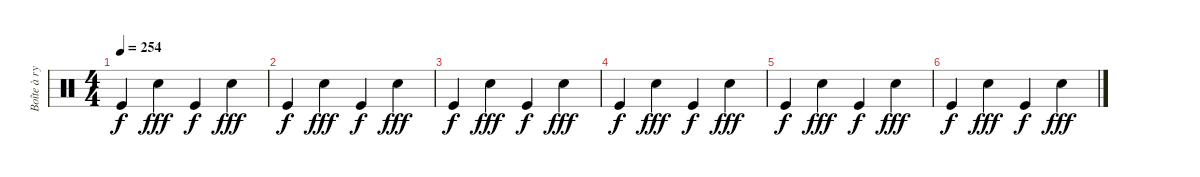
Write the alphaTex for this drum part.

\track ("Boîte à rytmes" "Boîte à ry") {instrument percussion}
\staff {score}
\articulation defaults
\ts (4 4)
\tempo 254
\clef neutral
\ks c "Kick (hit)".4{dy f} "Snare (hit) 2".4{dy fff} "Kick (hit)".4{dy f} "Snare (hit) 2".4{dy fff}
|
"Kick (hit)".4{dy f} "Snare (hit) 2".4{dy fff} "Kick (hit)".4{dy f} "Snare (hit) 2".4{dy fff} |
"Kick (hit)".4{dy f} "Snare (hit) 2".4{dy fff} "Kick (hit)".4{dy f} "Snare (hit) 2".4{dy fff} |
"Kick (hit)".4{dy f} "Snare (hit) 2".4{dy fff} "Kick (hit)".4{dy f} "Snare (hit) 2".4{dy fff} |
"Kick (hit)".4{dy f} "Snare (hit) 2".4{dy fff} "Kick (hit)".4{dy f} "Snare (hit) 2".4{dy fff} |
"Kick (hit)".4{dy f} "Snare (hit) 2".4{dy fff} "Kick (hit)".4{dy f} "Snare (hit) 2".4{dy fff}
